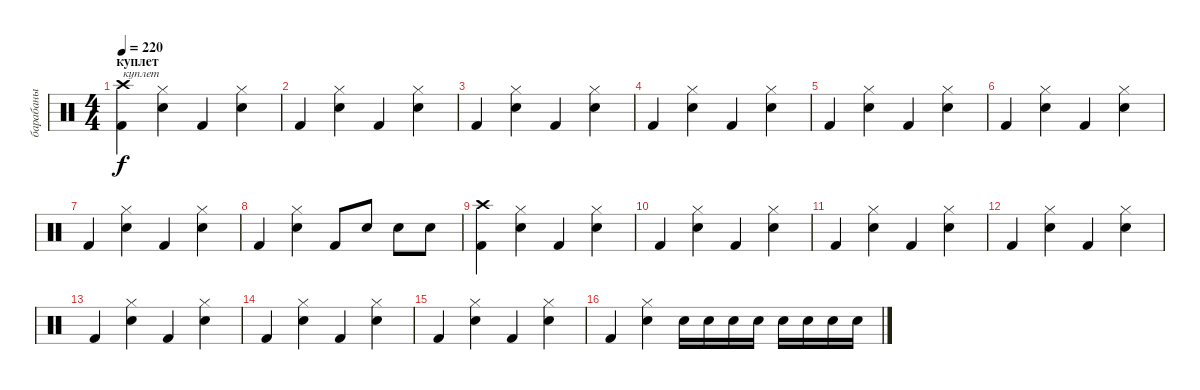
\track ("барабаны" "барабаны") {instrument percussion}
\staff {score}
\articulation defaults
\ts (4 4)
\section ("" "куплет")
\tempo 220
\clef neutral
\ks c
("Crash high (hit)" "Kick (hit) 2").4{txt "куплет" dy f} ("Hi-Hat (closed)" "Snare (hit) 2").4 "Kick (hit) 2".4 ("Hi-Hat (closed)" "Snare (hit) 2").4 |
"Kick (hit) 2".4 ("Hi-Hat (closed)" "Snare (hit) 2").4 "Kick (hit) 2".4 ("Hi-Hat (closed)" "Snare (hit) 2").4 |
"Kick (hit) 2".4 ("Hi-Hat (closed)" "Snare (hit) 2").4 "Kick (hit) 2".4 ("Hi-Hat (closed)" "Snare (hit) 2").4 |
"Kick (hit) 2".4 ("Hi-Hat (closed)" "Snare (hit) 2").4 "Kick (hit) 2".4 ("Hi-Hat (closed)" "Snare (hit) 2").4 |
"Kick (hit) 2".4 ("Hi-Hat (closed)" "Snare (hit) 2").4 "Kick (hit) 2".4 ("Hi-Hat (closed)" "Snare (hit) 2").4 |
"Kick (hit) 2".4 ("Hi-Hat (closed)" "Snare (hit) 2").4 "Kick (hit) 2".4 ("Hi-Hat (closed)" "Snare (hit) 2").4 |
"Kick (hit) 2".4 ("Hi-Hat (closed)" "Snare (hit) 2").4 "Kick (hit) 2".4 ("Hi-Hat (closed)" "Snare (hit) 2").4 |
"Kick (hit) 2".4 ("Hi-Hat (closed)" "Snare (hit) 2").4 "Kick (hit) 2".8 "Snare (hit) 2".8 "Snare (hit) 2".8 "Snare (hit) 2".8 |
("Crash high (hit)" "Kick (hit) 2").4 ("Hi-Hat (closed)" "Snare (hit) 2").4 "Kick (hit) 2".4 ("Hi-Hat (closed)" "Snare (hit) 2").4 |
"Kick (hit) 2".4 ("Hi-Hat (closed)" "Snare (hit) 2").4 "Kick (hit) 2".4 ("Hi-Hat (closed)" "Snare (hit) 2").4 |
"Kick (hit) 2".4 ("Hi-Hat (closed)" "Snare (hit) 2").4 "Kick (hit) 2".4 ("Hi-Hat (closed)" "Snare (hit) 2").4 |
"Kick (hit) 2".4 ("Hi-Hat (closed)" "Snare (hit) 2").4 "Kick (hit) 2".4 ("Hi-Hat (closed)" "Snare (hit) 2").4 |
"Kick (hit) 2".4 ("Hi-Hat (closed)" "Snare (hit) 2").4 "Kick (hit) 2".4 ("Hi-Hat (closed)" "Snare (hit) 2").4 |
"Kick (hit) 2".4 ("Hi-Hat (closed)" "Snare (hit) 2").4 "Kick (hit) 2".4 ("Hi-Hat (closed)" "Snare (hit) 2").4 |
"Kick (hit) 2".4 ("Hi-Hat (closed)" "Snare (hit) 2").4 "Kick (hit) 2".4 ("Hi-Hat (closed)" "Snare (hit) 2").4 |
"Kick (hit) 2".4 ("Hi-Hat (closed)" "Snare (hit) 2").4 "Snare (hit) 2".16 "Snare (hit) 2".16 "Snare (hit) 2".16 "Snare (hit) 2".16 "Snare (hit) 2".16 "Snare (hit) 2".16 "Snare (hit) 2".16 "Snare (hit) 2".16
